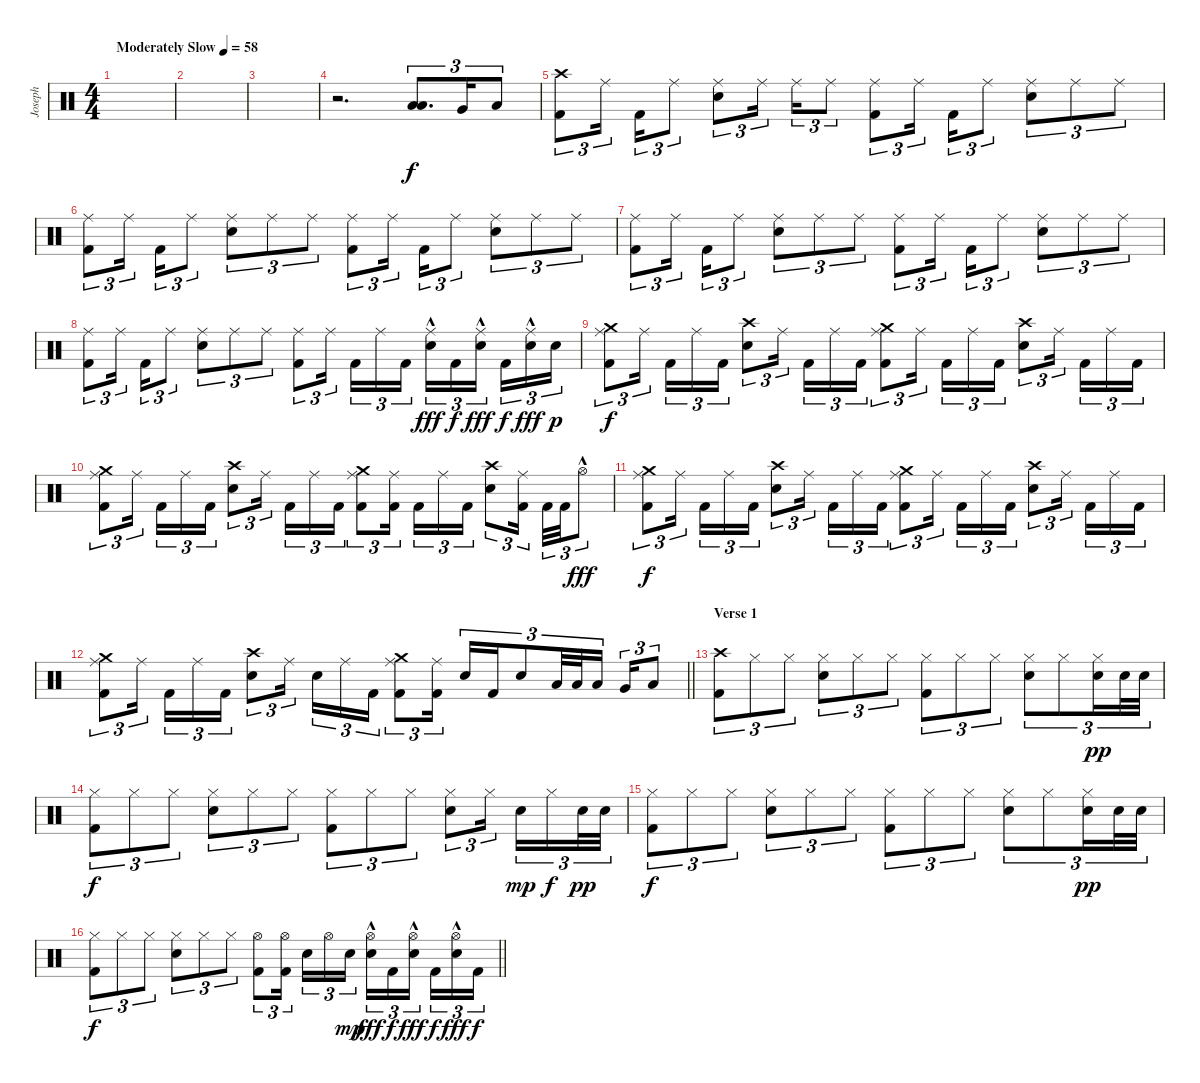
\track ("Joseph" "Joseph") {instrument percussion}
\staff {score}
\articulation defaults
\ts (4 4)
\tempo (58 "Moderately Slow")
\clef neutral
\ks c
|
|
|
r.2{d} ("Low Tom (hit)" "Low Tom (hit)").8{d tu (3 2)} "Very Low Tom (hit)".16{tu (3 2)} "Low Floor Tom (hit)".8{tu (3 2)} |
("Crash high (hit)" "Kick (hit) 2").8{tu (3 2)} "Ride (middle)".16{tu (3 2) beam splitsecondary} "Kick (hit) 2".16{tu (3 2)} "Ride (middle)".8{tu (3 2)} ("Ride (middle)" "Electric Snare (hit)").8{tu (3 2)} "Ride (middle)".16{tu (3 2) beam splitsecondary} "Ride (middle)".16{tu (3 2)} "Ride (middle)".8{tu (3 2)} ("Ride (middle)" "Kick (hit) 2").8{tu (3 2)} "Ride (middle)".16{tu (3 2) beam splitsecondary} "Kick (hit) 2".16{tu (3 2)} "Ride (middle)".8{tu (3 2)} ("Ride (middle)" "Electric Snare (hit)").8{tu (3 2)} "Ride (middle)".8{tu (3 2)} "Ride (middle)".8{tu (3 2)} |
("Ride (middle)" "Kick (hit) 2").8{tu (3 2)} "Ride (middle)".16{tu (3 2) beam splitsecondary} "Kick (hit) 2".16{tu (3 2)} "Ride (middle)".8{tu (3 2)} ("Ride (middle)" "Electric Snare (hit)").8{tu (3 2)} "Ride (middle)".8{tu (3 2)} "Ride (middle)".8{tu (3 2)} ("Ride (middle)" "Kick (hit) 2").8{tu (3 2)} "Ride (middle)".16{tu (3 2) beam splitsecondary} "Kick (hit) 2".16{tu (3 2)} "Ride (middle)".8{tu (3 2)} ("Ride (middle)" "Electric Snare (hit)").8{tu (3 2)} "Ride (middle)".8{tu (3 2)} "Ride (middle)".8{tu (3 2)} |
("Ride (middle)" "Kick (hit) 2").8{tu (3 2)} "Ride (middle)".16{tu (3 2) beam splitsecondary} "Kick (hit) 2".16{tu (3 2)} "Ride (middle)".8{tu (3 2)} ("Ride (middle)" "Electric Snare (hit)").8{tu (3 2)} "Ride (middle)".8{tu (3 2)} "Ride (middle)".8{tu (3 2)} ("Ride (middle)" "Kick (hit) 2").8{tu (3 2)} "Ride (middle)".16{tu (3 2) beam splitsecondary} "Kick (hit) 2".16{tu (3 2)} "Ride (middle)".8{tu (3 2)} ("Ride (middle)" "Electric Snare (hit)").8{tu (3 2)} "Ride (middle)".8{tu (3 2)} "Ride (middle)".8{tu (3 2)} |
("Ride (middle)" "Kick (hit) 2").8{tu (3 2)} "Ride (middle)".16{tu (3 2) beam splitsecondary} "Kick (hit) 2".16{tu (3 2)} "Ride (middle)".8{tu (3 2)} ("Ride (middle)" "Electric Snare (hit)").8{tu (3 2)} "Ride (middle)".8{tu (3 2)} "Ride (middle)".8{tu (3 2)} ("Ride (middle)" "Kick (hit) 2").8{tu (3 2)} "Ride (middle)".16{tu (3 2) beam splitsecondary} "Kick (hit) 2".16{tu (3 2)} "Ride (middle)".16{tu (3 2)} "Kick (hit) 2".16{tu (3 2)} ("Ride (middle)" "Electric Snare (hit)"{hac}).16{tu (3 2) dy fff} "Kick (hit) 2".16{tu (3 2) dy f} ("Ride (middle)" "Electric Snare (hit)"{hac}).16{tu (3 2) dy fff beam splitsecondary} "Kick (hit) 2".16{tu (3 2) dy f} ("Ride (middle)" "Electric Snare (hit)"{hac}).16{tu (3 2) dy fff} "Electric Snare (hit)".16{tu (3 2) dy p} |
("Crash medium (hit)" "Ride (middle)" "Kick (hit) 2").8{tu (3 2) dy f} "Ride (middle)".16{tu (3 2) beam splitsecondary} "Kick (hit) 2".16{tu (3 2)} "Ride (middle)".16{tu (3 2)} "Kick (hit) 2".16{tu (3 2)} ("Crash high (hit)" "Electric Snare (hit)").8{tu (3 2)} "Ride (middle)".16{tu (3 2) beam splitsecondary} "Kick (hit) 2".16{tu (3 2)} "Ride (middle)".16{tu (3 2)} "Kick (hit) 2".16{tu (3 2)} ("Crash medium (hit)" "Ride (middle)" "Kick (hit) 2").8{tu (3 2)} "Ride (middle)".16{tu (3 2) beam splitsecondary} "Kick (hit) 2".16{tu (3 2)} "Ride (middle)".16{tu (3 2)} "Kick (hit) 2".16{tu (3 2)} ("Crash high (hit)" "Electric Snare (hit)").8{tu (3 2)} "Ride (middle)".16{tu (3 2) beam splitsecondary} "Kick (hit) 2".16{tu (3 2)} "Ride (middle)".16{tu (3 2)} "Kick (hit) 2".16{tu (3 2)} |
("Crash medium (hit)" "Ride (middle)" "Kick (hit) 2").8{tu (3 2)} "Ride (middle)".16{tu (3 2) beam splitsecondary} "Kick (hit) 2".16{tu (3 2)} "Ride (middle)".16{tu (3 2)} "Kick (hit) 2".16{tu (3 2)} ("Crash high (hit)" "Electric Snare (hit)").8{tu (3 2)} "Ride (middle)".16{tu (3 2) beam splitsecondary} "Kick (hit) 2".16{tu (3 2)} "Ride (middle)".16{tu (3 2)} "Kick (hit) 2".16{tu (3 2)} ("Crash medium (hit)" "Ride (middle)" "Kick (hit) 2").8{tu (3 2)} ("Ride (middle)" "Kick (hit) 2").16{tu (3 2) beam splitsecondary} "Kick (hit) 2".16{tu (3 2)} "Ride (middle)".16{tu (3 2)} "Kick (hit) 2".16{tu (3 2)} ("Crash high (hit)" "Electric Snare (hit)").8{tu (3 2)} ("Ride (middle)" "Kick (hit) 2").16{tu (3 2) beam splitsecondary} "Kick (hit) 2".32{tu (3 2)} "Kick (hit) 2".32{tu (3 2)} "Hi-Hat (open)"{hac}.8{tu (3 2) dy fff} |
("Crash medium (hit)" "Ride (middle)" "Kick (hit) 2").8{tu (3 2) dy f} "Ride (middle)".16{tu (3 2) beam splitsecondary} "Kick (hit) 2".16{tu (3 2)} "Ride (middle)".16{tu (3 2)} "Kick (hit) 2".16{tu (3 2)} ("Crash high (hit)" "Electric Snare (hit)").8{tu (3 2)} "Ride (middle)".16{tu (3 2) beam splitsecondary} "Kick (hit) 2".16{tu (3 2)} "Ride (middle)".16{tu (3 2)} "Kick (hit) 2".16{tu (3 2)} ("Crash medium (hit)" "Ride (middle)" "Kick (hit) 2").8{tu (3 2)} "Ride (middle)".16{tu (3 2) beam splitsecondary} "Kick (hit) 2".16{tu (3 2)} "Ride (middle)".16{tu (3 2)} "Kick (hit) 2".16{tu (3 2)} ("Crash high (hit)" "Electric Snare (hit)").8{tu (3 2)} "Ride (middle)".16{tu (3 2) beam splitsecondary} "Kick (hit) 2".16{tu (3 2)} "Ride (middle)".16{tu (3 2)} "Kick (hit) 2".16{tu (3 2)} |
\barLineRight lightlight
("Crash medium (hit)" "Ride (middle)" "Kick (hit) 2").8{tu (3 2)} "Ride (middle)".16{tu (3 2) beam splitsecondary} "Kick (hit) 2".16{tu (3 2)} "Ride (middle)".16{tu (3 2)} "Kick (hit) 2".16{tu (3 2)} ("Crash high (hit)" "Electric Snare (hit)").8{tu (3 2)} "Ride (middle)".16{tu (3 2) beam splitsecondary} "Electric Snare (hit)".16{tu (3 2)} "Ride (middle)".16{tu (3 2)} "Kick (hit) 2".16{tu (3 2)} ("Crash medium (hit)" "Ride (middle)" "Kick (hit) 2").8{tu (3 2)} ("Ride (middle)" "Kick (hit) 2").16{tu (3 2) beam splitsecondary} "Electric Snare (hit)".16{tu (3 2)} "Kick (hit) 2".16{tu (3 2)} "Electric Snare (hit)".8{tu (3 2)} "Low Tom (hit)".32{tu (3 2)} "Low Tom (hit)".32{tu (3 2)} "Low Tom (hit)".16{tu (3 2) beam splitsecondary} "Very Low Tom (hit)".16{tu (3 2)} "Low Floor Tom (hit)".8{tu (3 2)} |
\section ("" "Verse 1")
("Crash high (hit)" "Kick (hit) 2").8{tu (3 2)} "Hi-Hat (closed)".8{tu (3 2)} "Hi-Hat (closed)".8{tu (3 2)} ("Hi-Hat (closed)" "Electric Snare (hit)").8{tu (3 2)} "Hi-Hat (closed)".8{tu (3 2)} "Hi-Hat (closed)".8{tu (3 2)} ("Hi-Hat (closed)" "Kick (hit) 2").8{tu (3 2)} "Hi-Hat (closed)".8{tu (3 2)} "Hi-Hat (closed)".8{tu (3 2)} ("Hi-Hat (closed)" "Electric Snare (hit)").8{tu (3 2)} "Hi-Hat (closed)".8{tu (3 2)} ("Hi-Hat (closed)" "Electric Snare (hit)").16{tu (3 2) dy pp} "Electric Snare (hit)".32{tu (3 2)} "Electric Snare (hit)".32{tu (3 2)} |
("Hi-Hat (closed)" "Kick (hit) 2").8{tu (3 2) dy f} "Hi-Hat (closed)".8{tu (3 2)} "Hi-Hat (closed)".8{tu (3 2)} ("Hi-Hat (closed)" "Electric Snare (hit)").8{tu (3 2)} "Hi-Hat (closed)".8{tu (3 2)} "Hi-Hat (closed)".8{tu (3 2)} ("Hi-Hat (closed)" "Kick (hit) 2").8{tu (3 2)} "Hi-Hat (closed)".8{tu (3 2)} "Hi-Hat (closed)".8{tu (3 2)} ("Hi-Hat (closed)" "Electric Snare (hit)").8{tu (3 2)} "Hi-Hat (closed)".16{tu (3 2) beam splitsecondary} "Electric Snare (hit)".16{tu (3 2) dy mp} "Hi-Hat (closed)".16{tu (3 2) dy f} "Electric Snare (hit)".32{tu (3 2) dy pp} "Electric Snare (hit)".32{tu (3 2)} |
("Hi-Hat (closed)" "Kick (hit) 2").8{tu (3 2) dy f} "Hi-Hat (closed)".8{tu (3 2)} "Hi-Hat (closed)".8{tu (3 2)} ("Hi-Hat (closed)" "Electric Snare (hit)").8{tu (3 2)} "Hi-Hat (closed)".8{tu (3 2)} "Hi-Hat (closed)".8{tu (3 2)} ("Hi-Hat (closed)" "Kick (hit) 2").8{tu (3 2)} "Hi-Hat (closed)".8{tu (3 2)} "Hi-Hat (closed)".8{tu (3 2)} ("Hi-Hat (closed)" "Electric Snare (hit)").8{tu (3 2)} "Hi-Hat (closed)".8{tu (3 2)} ("Hi-Hat (closed)" "Electric Snare (hit)").16{tu (3 2) dy pp} "Electric Snare (hit)".32{tu (3 2)} "Electric Snare (hit)".32{tu (3 2)} |
\barLineRight lightlight
("Hi-Hat (closed)" "Kick (hit) 2").8{tu (3 2) dy f} "Hi-Hat (closed)".8{tu (3 2)} "Hi-Hat (closed)".8{tu (3 2)} ("Hi-Hat (closed)" "Electric Snare (hit)").8{tu (3 2)} "Hi-Hat (closed)".8{tu (3 2)} "Hi-Hat (closed)".8{tu (3 2)} ("Hi-Hat (open)" "Kick (hit) 2").8{tu (3 2)} ("Hi-Hat (open)" "Kick (hit) 2").16{tu (3 2) beam splitsecondary} "Electric Snare (hit)".16{tu (3 2)} "Hi-Hat (open)".16{tu (3 2)} "Electric Snare (hit)".16{tu (3 2) dy mp} ("Hi-Hat (open)" "Electric Snare (hit)"{hac}).16{tu (3 2) dy fff} "Kick (hit) 2".16{tu (3 2) dy f} ("Hi-Hat (open)" "Electric Snare (hit)"{hac}).16{tu (3 2) dy fff beam splitsecondary} "Kick (hit) 2".16{tu (3 2) dy f} ("Hi-Hat (open)" "Electric Snare (hit)"{hac}).16{tu (3 2) dy fff} "Kick (hit) 2".16{tu (3 2) dy f}
